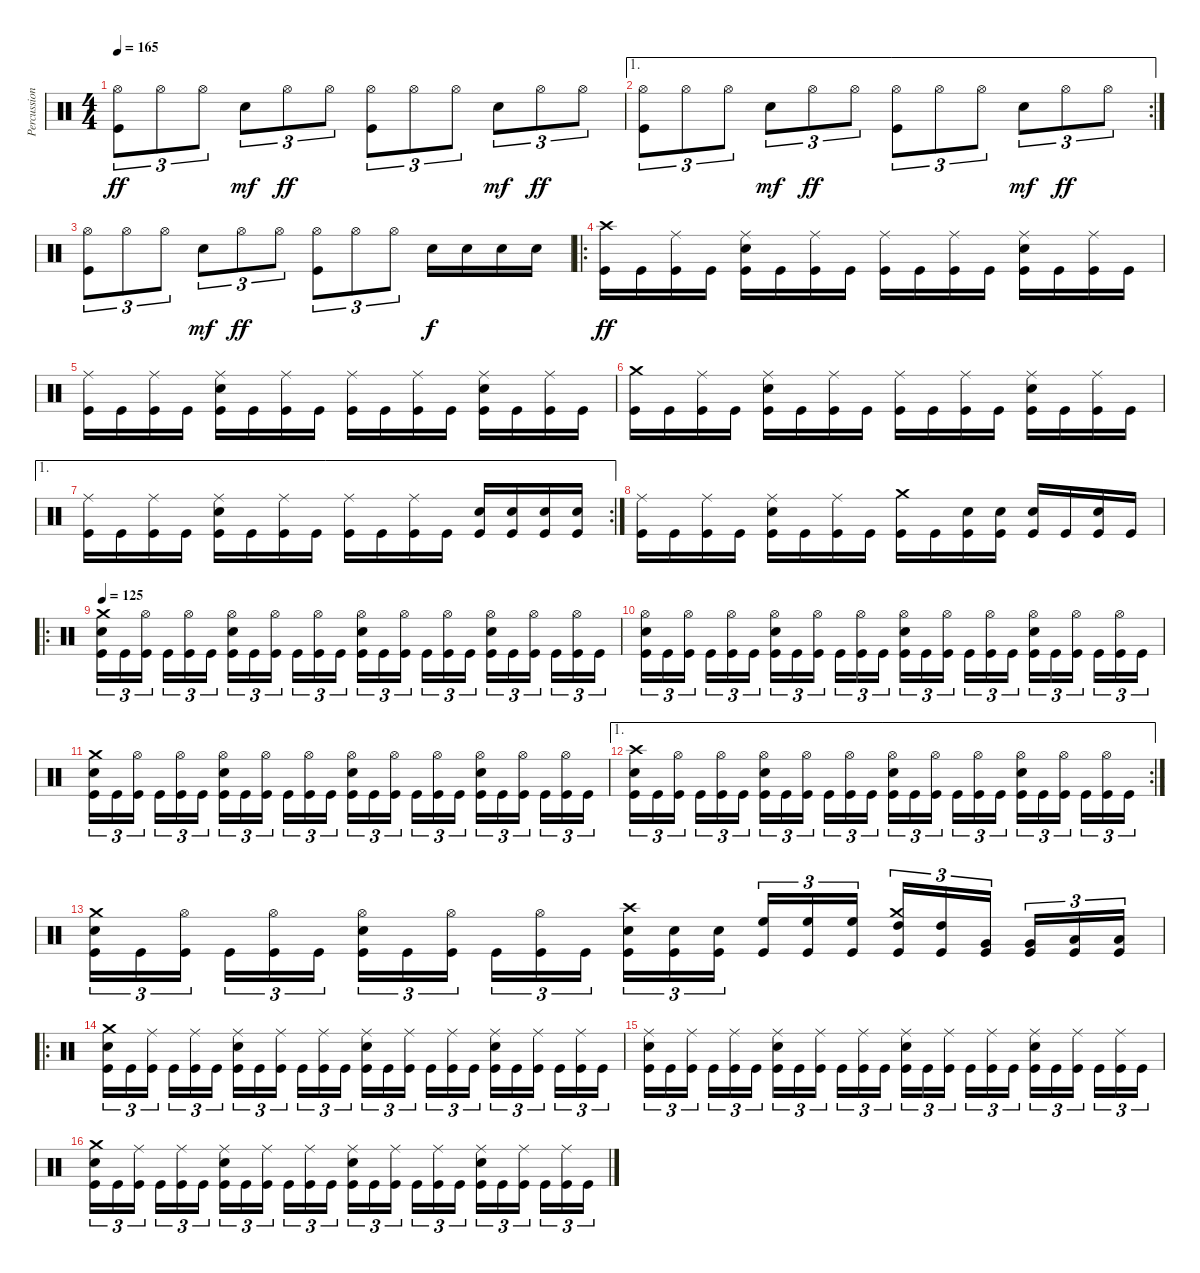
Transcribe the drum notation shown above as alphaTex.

\track ("Percussion" "Percussion") {instrument percussion}
\staff {score}
\articulation defaults
\ts (4 4)
\tempo 165
\clef neutral
\ks c
("Hi-Hat (open)" "Kick (hit)").8{tu (3 2) dy ff} "Hi-Hat (open)".8{tu (3 2)} "Hi-Hat (open)".8{tu (3 2)} "Electric Snare (hit)".8{tu (3 2) dy mf} "Hi-Hat (open)".8{tu (3 2) dy ff} "Hi-Hat (open)".8{tu (3 2)} ("Hi-Hat (open)" "Kick (hit)").8{tu (3 2)} "Hi-Hat (open)".8{tu (3 2)} "Hi-Hat (open)".8{tu (3 2)} "Electric Snare (hit)".8{tu (3 2) dy mf} "Hi-Hat (open)".8{tu (3 2) dy ff} "Hi-Hat (open)".8{tu (3 2)} |
\ae 1
\rc 2
("Hi-Hat (open)" "Kick (hit)").8{tu (3 2)} "Hi-Hat (open)".8{tu (3 2)} "Hi-Hat (open)".8{tu (3 2)} "Electric Snare (hit)".8{tu (3 2) dy mf} "Hi-Hat (open)".8{tu (3 2) dy ff} "Hi-Hat (open)".8{tu (3 2)} ("Hi-Hat (open)" "Kick (hit)").8{tu (3 2)} "Hi-Hat (open)".8{tu (3 2)} "Hi-Hat (open)".8{tu (3 2)} "Electric Snare (hit)".8{tu (3 2) dy mf} "Hi-Hat (open)".8{tu (3 2) dy ff} "Hi-Hat (open)".8{tu (3 2)} |
("Hi-Hat (open)" "Kick (hit)").8{tu (3 2)} "Hi-Hat (open)".8{tu (3 2)} "Hi-Hat (open)".8{tu (3 2)} "Electric Snare (hit)".8{tu (3 2) dy mf} "Hi-Hat (open)".8{tu (3 2) dy ff} "Hi-Hat (open)".8{tu (3 2)} ("Hi-Hat (open)" "Kick (hit)").8{tu (3 2)} "Hi-Hat (open)".8{tu (3 2)} "Hi-Hat (open)".8{tu (3 2)} "Electric Snare (hit)".16{dy f} "Electric Snare (hit)".16 "Electric Snare (hit)".16 "Electric Snare (hit)".16 |
\ro
("Crash high (hit)" "Kick (hit)").16{dy ff} "Kick (hit)".16 ("Ride (middle)" "Kick (hit)").16 "Kick (hit)".16 ("Ride (middle)" "Electric Snare (hit)" "Kick (hit)").16 "Kick (hit)".16 ("Ride (middle)" "Kick (hit)").16 "Kick (hit)".16 ("Ride (middle)" "Kick (hit)").16 "Kick (hit)".16 ("Ride (middle)" "Kick (hit)").16 "Kick (hit)".16 ("Ride (middle)" "Electric Snare (hit)" "Kick (hit)").16 "Kick (hit)".16 ("Ride (middle)" "Kick (hit)").16 "Kick (hit)".16 |
("Ride (middle)" "Kick (hit)").16 "Kick (hit)".16 ("Ride (middle)" "Kick (hit)").16 "Kick (hit)".16 ("Ride (middle)" "Electric Snare (hit)" "Kick (hit)").16 "Kick (hit)".16 ("Ride (middle)" "Kick (hit)").16 "Kick (hit)".16 ("Ride (middle)" "Kick (hit)").16 "Kick (hit)".16 ("Ride (middle)" "Kick (hit)").16 "Kick (hit)".16 ("Ride (middle)" "Electric Snare (hit)" "Kick (hit)").16 "Kick (hit)".16 ("Ride (middle)" "Kick (hit)").16 "Kick (hit)".16 |
("Crash medium (hit)" "Kick (hit)").16 "Kick (hit)".16 ("Ride (middle)" "Kick (hit)").16 "Kick (hit)".16 ("Ride (middle)" "Electric Snare (hit)" "Kick (hit)").16 "Kick (hit)".16 ("Ride (middle)" "Kick (hit)").16 "Kick (hit)".16 ("Ride (middle)" "Kick (hit)").16 "Kick (hit)".16 ("Ride (middle)" "Kick (hit)").16 "Kick (hit)".16 ("Ride (middle)" "Electric Snare (hit)" "Kick (hit)").16 "Kick (hit)".16 ("Ride (middle)" "Kick (hit)").16 "Kick (hit)".16 |
\ae 1
\rc 2
("Ride (middle)" "Kick (hit)").16 "Kick (hit)".16 ("Ride (middle)" "Kick (hit)").16 "Kick (hit)".16 ("Ride (middle)" "Electric Snare (hit)" "Kick (hit)").16 "Kick (hit)".16 ("Ride (middle)" "Kick (hit)").16 "Kick (hit)".16 ("Ride (middle)" "Kick (hit)").16 "Kick (hit)".16 ("Ride (middle)" "Kick (hit)").16 "Kick (hit)".16 ("Electric Snare (hit)" "Kick (hit)").16 ("Electric Snare (hit)" "Kick (hit)").16 ("Electric Snare (hit)" "Kick (hit)").16 ("Electric Snare (hit)" "Kick (hit)").16 |
("Ride (middle)" "Kick (hit)").16 "Kick (hit)".16 ("Ride (middle)" "Kick (hit)").16 "Kick (hit)".16 ("Ride (middle)" "Electric Snare (hit)" "Kick (hit)").16 "Kick (hit)".16 ("Ride (middle)" "Kick (hit)").16 "Kick (hit)".16 ("Crash medium (hit)" "Kick (hit)").16 "Kick (hit)".16 ("Electric Snare (hit)" "Kick (hit)").16 ("Electric Snare (hit)" "Kick (hit)").16 ("Electric Snare (hit)" "Kick (hit)").16 "Kick (hit)".16 ("Electric Snare (hit)" "Kick (hit)").16 "Kick (hit)".16 |
\ro
\tempo 125
("Crash medium (hit)" "Electric Snare (hit)" "Kick (hit)").16{tu (3 2)} "Kick (hit)".16{tu (3 2)} ("Hi-Hat (open)" "Kick (hit)").16{tu (3 2) beam splitsecondary} "Kick (hit)".16{tu (3 2)} ("Hi-Hat (open)" "Kick (hit)").16{tu (3 2)} "Kick (hit)".16{tu (3 2)} ("Hi-Hat (open)" "Electric Snare (hit)" "Kick (hit)").16{tu (3 2)} "Kick (hit)".16{tu (3 2)} ("Hi-Hat (open)" "Kick (hit)").16{tu (3 2) beam splitsecondary} "Kick (hit)".16{tu (3 2)} ("Hi-Hat (open)" "Kick (hit)").16{tu (3 2)} "Kick (hit)".16{tu (3 2)} ("Hi-Hat (open)" "Electric Snare (hit)" "Kick (hit)").16{tu (3 2)} "Kick (hit)".16{tu (3 2)} ("Hi-Hat (open)" "Kick (hit)").16{tu (3 2) beam splitsecondary} "Kick (hit)".16{tu (3 2)} ("Hi-Hat (open)" "Kick (hit)").16{tu (3 2)} "Kick (hit)".16{tu (3 2)} ("Hi-Hat (open)" "Electric Snare (hit)" "Kick (hit)").16{tu (3 2)} "Kick (hit)".16{tu (3 2)} ("Hi-Hat (open)" "Kick (hit)").16{tu (3 2) beam splitsecondary} "Kick (hit)".16{tu (3 2)} ("Hi-Hat (open)" "Kick (hit)").16{tu (3 2)} "Kick (hit)".16{tu (3 2)} |
("Hi-Hat (open)" "Electric Snare (hit)" "Kick (hit)").16{tu (3 2)} "Kick (hit)".16{tu (3 2)} ("Hi-Hat (open)" "Kick (hit)").16{tu (3 2) beam splitsecondary} "Kick (hit)".16{tu (3 2)} ("Hi-Hat (open)" "Kick (hit)").16{tu (3 2)} "Kick (hit)".16{tu (3 2)} ("Hi-Hat (open)" "Electric Snare (hit)" "Kick (hit)").16{tu (3 2)} "Kick (hit)".16{tu (3 2)} ("Hi-Hat (open)" "Kick (hit)").16{tu (3 2) beam splitsecondary} "Kick (hit)".16{tu (3 2)} ("Hi-Hat (open)" "Kick (hit)").16{tu (3 2)} "Kick (hit)".16{tu (3 2)} ("Hi-Hat (open)" "Electric Snare (hit)" "Kick (hit)").16{tu (3 2)} "Kick (hit)".16{tu (3 2)} ("Hi-Hat (open)" "Kick (hit)").16{tu (3 2) beam splitsecondary} "Kick (hit)".16{tu (3 2)} ("Hi-Hat (open)" "Kick (hit)").16{tu (3 2)} "Kick (hit)".16{tu (3 2)} ("Hi-Hat (open)" "Electric Snare (hit)" "Kick (hit)").16{tu (3 2)} "Kick (hit)".16{tu (3 2)} ("Hi-Hat (open)" "Kick (hit)").16{tu (3 2) beam splitsecondary} "Kick (hit)".16{tu (3 2)} ("Hi-Hat (open)" "Kick (hit)").16{tu (3 2)} "Kick (hit)".16{tu (3 2)} |
("Crash medium (hit)" "Electric Snare (hit)" "Kick (hit)").16{tu (3 2)} "Kick (hit)".16{tu (3 2)} ("Hi-Hat (open)" "Kick (hit)").16{tu (3 2) beam splitsecondary} "Kick (hit)".16{tu (3 2)} ("Hi-Hat (open)" "Kick (hit)").16{tu (3 2)} "Kick (hit)".16{tu (3 2)} ("Hi-Hat (open)" "Electric Snare (hit)" "Kick (hit)").16{tu (3 2)} "Kick (hit)".16{tu (3 2)} ("Hi-Hat (open)" "Kick (hit)").16{tu (3 2) beam splitsecondary} "Kick (hit)".16{tu (3 2)} ("Hi-Hat (open)" "Kick (hit)").16{tu (3 2)} "Kick (hit)".16{tu (3 2)} ("Hi-Hat (open)" "Electric Snare (hit)" "Kick (hit)").16{tu (3 2)} "Kick (hit)".16{tu (3 2)} ("Hi-Hat (open)" "Kick (hit)").16{tu (3 2) beam splitsecondary} "Kick (hit)".16{tu (3 2)} ("Hi-Hat (open)" "Kick (hit)").16{tu (3 2)} "Kick (hit)".16{tu (3 2)} ("Hi-Hat (open)" "Electric Snare (hit)" "Kick (hit)").16{tu (3 2)} "Kick (hit)".16{tu (3 2)} ("Hi-Hat (open)" "Kick (hit)").16{tu (3 2) beam splitsecondary} "Kick (hit)".16{tu (3 2)} ("Hi-Hat (open)" "Kick (hit)").16{tu (3 2)} "Kick (hit)".16{tu (3 2)} |
\ae 1
\rc 2
("Crash high (hit)" "Electric Snare (hit)" "Kick (hit)").16{tu (3 2)} "Kick (hit)".16{tu (3 2)} ("Hi-Hat (open)" "Kick (hit)").16{tu (3 2) beam splitsecondary} "Kick (hit)".16{tu (3 2)} ("Hi-Hat (open)" "Kick (hit)").16{tu (3 2)} "Kick (hit)".16{tu (3 2)} ("Hi-Hat (open)" "Electric Snare (hit)" "Kick (hit)").16{tu (3 2)} "Kick (hit)".16{tu (3 2)} ("Hi-Hat (open)" "Kick (hit)").16{tu (3 2) beam splitsecondary} "Kick (hit)".16{tu (3 2)} ("Hi-Hat (open)" "Kick (hit)").16{tu (3 2)} "Kick (hit)".16{tu (3 2)} ("Hi-Hat (open)" "Electric Snare (hit)" "Kick (hit)").16{tu (3 2)} "Kick (hit)".16{tu (3 2)} ("Hi-Hat (open)" "Kick (hit)").16{tu (3 2) beam splitsecondary} "Kick (hit)".16{tu (3 2)} ("Hi-Hat (open)" "Kick (hit)").16{tu (3 2)} "Kick (hit)".16{tu (3 2)} ("Hi-Hat (open)" "Electric Snare (hit)" "Kick (hit)").16{tu (3 2)} "Kick (hit)".16{tu (3 2)} ("Hi-Hat (open)" "Kick (hit)").16{tu (3 2) beam splitsecondary} "Kick (hit)".16{tu (3 2)} ("Hi-Hat (open)" "Kick (hit)").16{tu (3 2)} "Kick (hit)".16{tu (3 2)} |
("Crash medium (hit)" "Electric Snare (hit)" "Kick (hit)").16{tu (3 2)} "Kick (hit)".16{tu (3 2)} ("Hi-Hat (open)" "Kick (hit)").16{tu (3 2) beam splitsecondary} "Kick (hit)".16{tu (3 2)} ("Hi-Hat (open)" "Kick (hit)").16{tu (3 2)} "Kick (hit)".16{tu (3 2)} ("Hi-Hat (open)" "Electric Snare (hit)" "Kick (hit)").16{tu (3 2)} "Kick (hit)".16{tu (3 2)} ("Hi-Hat (open)" "Kick (hit)").16{tu (3 2) beam splitsecondary} "Kick (hit)".16{tu (3 2)} ("Hi-Hat (open)" "Kick (hit)").16{tu (3 2)} "Kick (hit)".16{tu (3 2)} ("Crash high (hit)" "Electric Snare (hit)" "Kick (hit)").16{tu (3 2)} ("Electric Snare (hit)" "Kick (hit)").16{tu (3 2)} ("Electric Snare (hit)" "Kick (hit)").16{tu (3 2) beam splitsecondary} ("High Floor Tom (hit)" "Kick (hit)").16{tu (3 2)} ("High Floor Tom (hit)" "Kick (hit)").16{tu (3 2)} ("High Floor Tom (hit)" "Kick (hit)").16{tu (3 2)} ("Crash medium (hit)" "High Tom (hit)" "Kick (hit)").16{tu (3 2)} ("High Tom (hit)" "Kick (hit)").16{tu (3 2)} ("Very Low Tom (hit)" "Kick (hit)").16{tu (3 2) beam splitsecondary} ("Very Low Tom (hit)" "Kick (hit)").16{tu (3 2)} ("Low Floor Tom (hit)" "Kick (hit)").16{tu (3 2)} ("Low Floor Tom (hit)" "Kick (hit)").16{tu (3 2)} |
\ro
("Crash medium (hit)" "Electric Snare (hit)" "Kick (hit)").16{tu (3 2)} "Kick (hit)".16{tu (3 2)} ("Ride (middle)" "Kick (hit)").16{tu (3 2) beam splitsecondary} "Kick (hit)".16{tu (3 2)} ("Ride (middle)" "Kick (hit)").16{tu (3 2)} "Kick (hit)".16{tu (3 2)} ("Ride (middle)" "Electric Snare (hit)" "Kick (hit)").16{tu (3 2)} "Kick (hit)".16{tu (3 2)} ("Ride (middle)" "Kick (hit)").16{tu (3 2) beam splitsecondary} "Kick (hit)".16{tu (3 2)} ("Ride (middle)" "Kick (hit)").16{tu (3 2)} "Kick (hit)".16{tu (3 2)} ("Ride (middle)" "Electric Snare (hit)" "Kick (hit)").16{tu (3 2)} "Kick (hit)".16{tu (3 2)} ("Ride (middle)" "Kick (hit)").16{tu (3 2) beam splitsecondary} "Kick (hit)".16{tu (3 2)} ("Ride (middle)" "Kick (hit)").16{tu (3 2)} "Kick (hit)".16{tu (3 2)} ("Ride (middle)" "Electric Snare (hit)" "Kick (hit)").16{tu (3 2)} "Kick (hit)".16{tu (3 2)} ("Ride (middle)" "Kick (hit)").16{tu (3 2) beam splitsecondary} "Kick (hit)".16{tu (3 2)} ("Ride (middle)" "Kick (hit)").16{tu (3 2)} "Kick (hit)".16{tu (3 2)} |
("Ride (middle)" "Electric Snare (hit)" "Kick (hit)").16{tu (3 2)} "Kick (hit)".16{tu (3 2)} ("Ride (middle)" "Kick (hit)").16{tu (3 2) beam splitsecondary} "Kick (hit)".16{tu (3 2)} ("Ride (middle)" "Kick (hit)").16{tu (3 2)} "Kick (hit)".16{tu (3 2)} ("Ride (middle)" "Electric Snare (hit)" "Kick (hit)").16{tu (3 2)} "Kick (hit)".16{tu (3 2)} ("Ride (middle)" "Kick (hit)").16{tu (3 2) beam splitsecondary} "Kick (hit)".16{tu (3 2)} ("Ride (middle)" "Kick (hit)").16{tu (3 2)} "Kick (hit)".16{tu (3 2)} ("Ride (middle)" "Electric Snare (hit)" "Kick (hit)").16{tu (3 2)} "Kick (hit)".16{tu (3 2)} ("Ride (middle)" "Kick (hit)").16{tu (3 2) beam splitsecondary} "Kick (hit)".16{tu (3 2)} ("Ride (middle)" "Kick (hit)").16{tu (3 2)} "Kick (hit)".16{tu (3 2)} ("Ride (middle)" "Electric Snare (hit)" "Kick (hit)").16{tu (3 2)} "Kick (hit)".16{tu (3 2)} ("Ride (middle)" "Kick (hit)").16{tu (3 2) beam splitsecondary} "Kick (hit)".16{tu (3 2)} ("Ride (middle)" "Kick (hit)").16{tu (3 2)} "Kick (hit)".16{tu (3 2)} |
("Crash medium (hit)" "Electric Snare (hit)" "Kick (hit)").16{tu (3 2)} "Kick (hit)".16{tu (3 2)} ("Ride (middle)" "Kick (hit)").16{tu (3 2) beam splitsecondary} "Kick (hit)".16{tu (3 2)} ("Ride (middle)" "Kick (hit)").16{tu (3 2)} "Kick (hit)".16{tu (3 2)} ("Ride (middle)" "Electric Snare (hit)" "Kick (hit)").16{tu (3 2)} "Kick (hit)".16{tu (3 2)} ("Ride (middle)" "Kick (hit)").16{tu (3 2) beam splitsecondary} "Kick (hit)".16{tu (3 2)} ("Ride (middle)" "Kick (hit)").16{tu (3 2)} "Kick (hit)".16{tu (3 2)} ("Ride (middle)" "Electric Snare (hit)" "Kick (hit)").16{tu (3 2)} "Kick (hit)".16{tu (3 2)} ("Ride (middle)" "Kick (hit)").16{tu (3 2) beam splitsecondary} "Kick (hit)".16{tu (3 2)} ("Ride (middle)" "Kick (hit)").16{tu (3 2)} "Kick (hit)".16{tu (3 2)} ("Ride (middle)" "Electric Snare (hit)" "Kick (hit)").16{tu (3 2)} "Kick (hit)".16{tu (3 2)} ("Ride (middle)" "Kick (hit)").16{tu (3 2) beam splitsecondary} "Kick (hit)".16{tu (3 2)} ("Ride (middle)" "Kick (hit)").16{tu (3 2)} "Kick (hit)".16{tu (3 2)}
